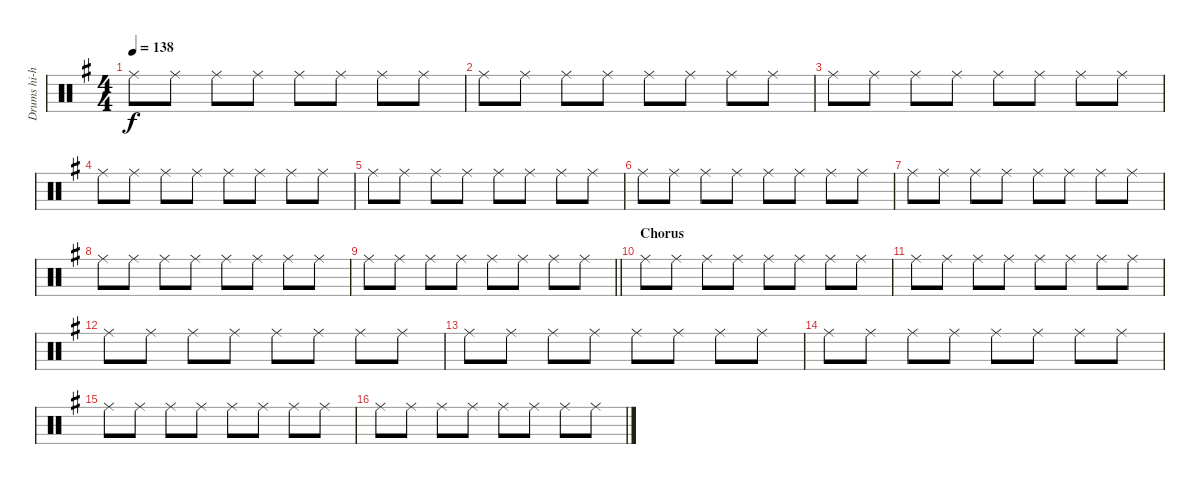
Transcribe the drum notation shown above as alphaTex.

\track ("Drums hi-hat" "Drums hi-h") {instrument percussion}
\staff {score}
\articulation defaults
\ts (4 4)
\tempo 138
\clef neutral
\ks g "Ride (middle)".8{dy f} "Ride (middle)".8 "Ride (middle)".8 "Ride (middle)".8 "Ride (middle)".8 "Ride (middle)".8 "Ride (middle)".8 "Ride (middle)".8
|
"Ride (middle)".8 "Ride (middle)".8 "Ride (middle)".8 "Ride (middle)".8 "Ride (middle)".8 "Ride (middle)".8 "Ride (middle)".8 "Ride (middle)".8 |
"Ride (middle)".8 "Ride (middle)".8 "Ride (middle)".8 "Ride (middle)".8 "Ride (middle)".8 "Ride (middle)".8 "Ride (middle)".8 "Ride (middle)".8 |
"Ride (middle)".8 "Ride (middle)".8 "Ride (middle)".8 "Ride (middle)".8 "Ride (middle)".8 "Ride (middle)".8 "Ride (middle)".8 "Ride (middle)".8 |
"Ride (middle)".8 "Ride (middle)".8 "Ride (middle)".8 "Ride (middle)".8 "Ride (middle)".8 "Ride (middle)".8 "Ride (middle)".8 "Ride (middle)".8 |
"Ride (middle)".8 "Ride (middle)".8 "Ride (middle)".8 "Ride (middle)".8 "Ride (middle)".8 "Ride (middle)".8 "Ride (middle)".8 "Ride (middle)".8 |
"Ride (middle)".8 "Ride (middle)".8 "Ride (middle)".8 "Ride (middle)".8 "Ride (middle)".8 "Ride (middle)".8 "Ride (middle)".8 "Ride (middle)".8 |
"Ride (middle)".8 "Ride (middle)".8 "Ride (middle)".8 "Ride (middle)".8 "Ride (middle)".8 "Ride (middle)".8 "Ride (middle)".8 "Ride (middle)".8 |
\barLineRight lightlight "Ride (middle)".8 "Ride (middle)".8 "Ride (middle)".8 "Ride (middle)".8 "Ride (middle)".8 "Ride (middle)".8 "Ride (middle)".8 "Ride (middle)".8
|
\section ("" "Chorus")
"Ride (middle)".8 "Ride (middle)".8 "Ride (middle)".8 "Ride (middle)".8 "Ride (middle)".8 "Ride (middle)".8 "Ride (middle)".8 "Ride (middle)".8 |
"Ride (middle)".8 "Ride (middle)".8 "Ride (middle)".8 "Ride (middle)".8 "Ride (middle)".8 "Ride (middle)".8 "Ride (middle)".8 "Ride (middle)".8 |
"Ride (middle)".8 "Ride (middle)".8 "Ride (middle)".8 "Ride (middle)".8 "Ride (middle)".8 "Ride (middle)".8 "Ride (middle)".8 "Ride (middle)".8 |
"Ride (middle)".8 "Ride (middle)".8 "Ride (middle)".8 "Ride (middle)".8 "Ride (middle)".8 "Ride (middle)".8 "Ride (middle)".8 "Ride (middle)".8 |
"Ride (middle)".8 "Ride (middle)".8 "Ride (middle)".8 "Ride (middle)".8 "Ride (middle)".8 "Ride (middle)".8 "Ride (middle)".8 "Ride (middle)".8 |
"Ride (middle)".8 "Ride (middle)".8 "Ride (middle)".8 "Ride (middle)".8 "Ride (middle)".8 "Ride (middle)".8 "Ride (middle)".8 "Ride (middle)".8 |
"Ride (middle)".8 "Ride (middle)".8 "Ride (middle)".8 "Ride (middle)".8 "Ride (middle)".8 "Ride (middle)".8 "Ride (middle)".8 "Ride (middle)".8
